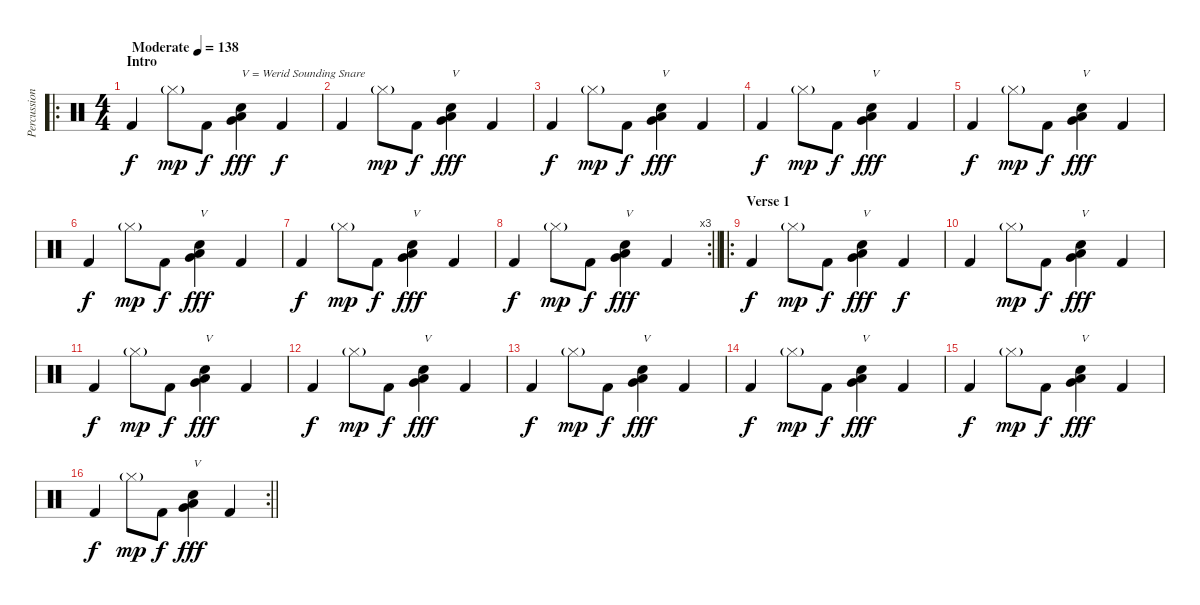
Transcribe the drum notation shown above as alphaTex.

\track ("Percussion" "Percussion") {instrument percussion}
\staff {score}
\articulation defaults
\ro
\ts (4 4)
\section ("" "Intro")
\tempo (138 "Moderate")
\clef neutral
\ks c "Kick (hit) 2".4{dy f} "Hi-Hat (closed)"{g}.8{dy mp} "Kick (hit) 2".8{dy f}
("Low Tom (hit)" "Very Low Tom (hit)" "Snare (hit) 2").4{txt "V = Werid Sounding Snare" dy fff} "Kick (hit) 2".4{dy f} |
"Kick (hit) 2".4 "Hi-Hat (closed)"{g}.8{dy mp} "Kick (hit) 2".8{dy f} ("Low Tom (hit)" "Very Low Tom (hit)" "Snare (hit) 2").4{txt "V" dy fff} "Kick (hit) 2".4 |
"Kick (hit) 2".4{dy f} "Hi-Hat (closed)"{g}.8{dy mp} "Kick (hit) 2".8{dy f} ("Low Tom (hit)" "Very Low Tom (hit)" "Snare (hit) 2").4{txt "V" dy fff} "Kick (hit) 2".4 |
"Kick (hit) 2".4{dy f} "Hi-Hat (closed)"{g}.8{dy mp} "Kick (hit) 2".8{dy f} ("Low Tom (hit)" "Very Low Tom (hit)" "Snare (hit) 2").4{txt "V" dy fff} "Kick (hit) 2".4 |
"Kick (hit) 2".4{dy f} "Hi-Hat (closed)"{g}.8{dy mp} "Kick (hit) 2".8{dy f} ("Low Tom (hit)" "Very Low Tom (hit)" "Snare (hit) 2").4{txt "V" dy fff} "Kick (hit) 2".4 |
"Kick (hit) 2".4{dy f} "Hi-Hat (closed)"{g}.8{dy mp} "Kick (hit) 2".8{dy f} ("Low Tom (hit)" "Very Low Tom (hit)" "Snare (hit) 2").4{txt "V" dy fff} "Kick (hit) 2".4 |
"Kick (hit) 2".4{dy f} "Hi-Hat (closed)"{g}.8{dy mp} "Kick (hit) 2".8{dy f} ("Low Tom (hit)" "Very Low Tom (hit)" "Snare (hit) 2").4{txt "V" dy fff} "Kick (hit) 2".4 |
\rc 3
\barLineRight lightlight "Kick (hit) 2".4{dy f} "Hi-Hat (closed)"{g}.8{dy mp} "Kick (hit) 2".8{dy f}
("Low Tom (hit)" "Very Low Tom (hit)" "Snare (hit) 2").4{txt "V" dy fff} "Kick (hit) 2".4 |
\ro
\section ("" "Verse 1")
"Kick (hit) 2".4{dy f} "Hi-Hat (closed)"{g}.8{dy mp} "Kick (hit) 2".8{dy f} ("Low Tom (hit)" "Very Low Tom (hit)" "Snare (hit) 2").4{txt "V" dy fff} "Kick (hit) 2".4{dy f} |
"Kick (hit) 2".4 "Hi-Hat (closed)"{g}.8{dy mp} "Kick (hit) 2".8{dy f} ("Low Tom (hit)" "Very Low Tom (hit)" "Snare (hit) 2").4{txt "V" dy fff} "Kick (hit) 2".4 |
"Kick (hit) 2".4{dy f} "Hi-Hat (closed)"{g}.8{dy mp} "Kick (hit) 2".8{dy f} ("Low Tom (hit)" "Very Low Tom (hit)" "Snare (hit) 2").4{txt "V" dy fff} "Kick (hit) 2".4 |
"Kick (hit) 2".4{dy f} "Hi-Hat (closed)"{g}.8{dy mp} "Kick (hit) 2".8{dy f} ("Low Tom (hit)" "Very Low Tom (hit)" "Snare (hit) 2").4{txt "V" dy fff} "Kick (hit) 2".4 |
"Kick (hit) 2".4{dy f} "Hi-Hat (closed)"{g}.8{dy mp} "Kick (hit) 2".8{dy f} ("Low Tom (hit)" "Very Low Tom (hit)" "Snare (hit) 2").4{txt "V" dy fff} "Kick (hit) 2".4 |
"Kick (hit) 2".4{dy f} "Hi-Hat (closed)"{g}.8{dy mp} "Kick (hit) 2".8{dy f} ("Low Tom (hit)" "Very Low Tom (hit)" "Snare (hit) 2").4{txt "V" dy fff} "Kick (hit) 2".4 |
"Kick (hit) 2".4{dy f} "Hi-Hat (closed)"{g}.8{dy mp} "Kick (hit) 2".8{dy f} ("Low Tom (hit)" "Very Low Tom (hit)" "Snare (hit) 2").4{txt "V" dy fff} "Kick (hit) 2".4 |
\rc 2
\barLineRight lightlight "Kick (hit) 2".4{dy f} "Hi-Hat (closed)"{g}.8{dy mp} "Kick (hit) 2".8{dy f}
("Low Tom (hit)" "Very Low Tom (hit)" "Snare (hit) 2").4{txt "V" dy fff} "Kick (hit) 2".4
